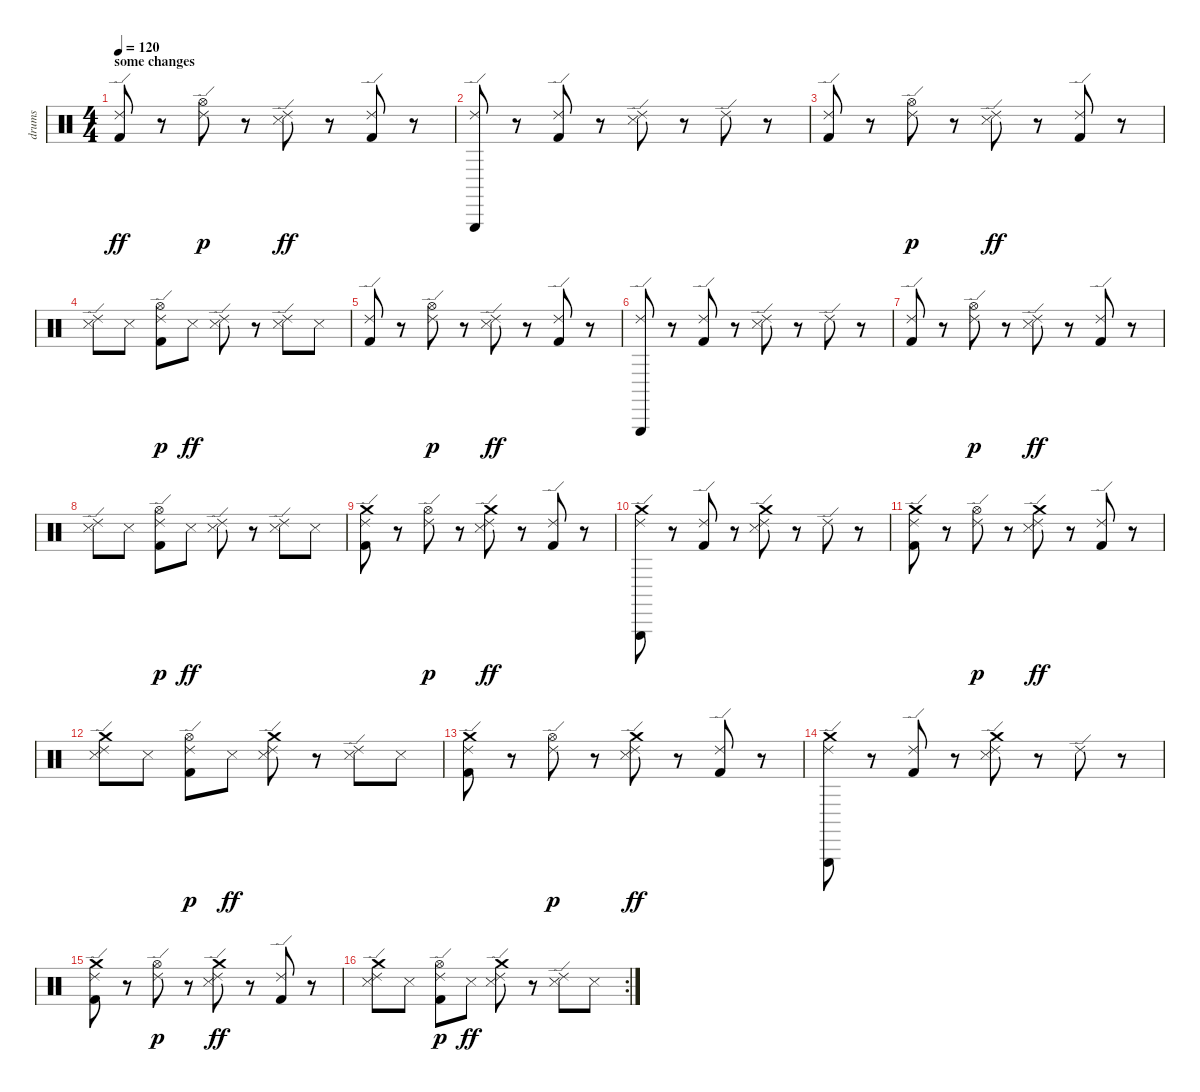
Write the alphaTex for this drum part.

\track ("drums" "drums") {instrument percussion}
\staff {score}
\articulation defaults
\ts (4 4)
\section ("" "some changes")
\tempo 120
\clef neutral
\ks c
("Kick (hit) 2" "Ride (edge) 2").8{dy ff} r.8 ("Ride (edge) 2" "Hi-Hat (open)").8{dy p} r.8 ("Snare (side stick) 3" "Ride (edge) 2").8{dy ff} r.8 ("Kick (hit) 2" "Ride (edge) 2").8 r.8 |
("Triangle (hit)" "Ride (edge) 2").8 r.8 ("Kick (hit) 2" "Ride (edge) 2").8 r.8 ("Snare (side stick) 3" "Ride (edge) 2").8 r.8 "Ride (edge) 2".8 r.8 |
("Kick (hit) 2" "Ride (edge) 2").8 r.8 ("Ride (edge) 2" "Hi-Hat (open)").8{dy p} r.8 ("Snare (side stick) 3" "Ride (edge) 2").8{dy ff} r.8 ("Kick (hit) 2" "Ride (edge) 2").8 r.8 |
("Snare (side stick) 3" "Ride (edge) 2").8 "Snare (side stick) 3".8 ("Kick (hit) 2" "Ride (edge) 2" "Hi-Hat (open)").8{dy p} "Snare (side stick) 3".8{dy ff} ("Snare (side stick) 3" "Ride (edge) 2").8 r.8 ("Snare (side stick) 3" "Ride (edge) 2").8 "Snare (side stick) 3".8 |
("Kick (hit) 2" "Ride (edge) 2").8 r.8 ("Ride (edge) 2" "Hi-Hat (open)").8{dy p} r.8 ("Snare (side stick) 3" "Ride (edge) 2").8{dy ff} r.8 ("Kick (hit) 2" "Ride (edge) 2").8 r.8 |
("Triangle (hit)" "Ride (edge) 2").8 r.8 ("Kick (hit) 2" "Ride (edge) 2").8 r.8 ("Snare (side stick) 3" "Ride (edge) 2").8 r.8 "Ride (edge) 2".8 r.8 |
("Kick (hit) 2" "Ride (edge) 2").8 r.8 ("Ride (edge) 2" "Hi-Hat (open)").8{dy p} r.8 ("Snare (side stick) 3" "Ride (edge) 2").8{dy ff} r.8 ("Kick (hit) 2" "Ride (edge) 2").8 r.8 |
("Snare (side stick) 3" "Ride (edge) 2").8 "Snare (side stick) 3".8 ("Kick (hit) 2" "Ride (edge) 2" "Hi-Hat (open)").8{dy p} "Snare (side stick) 3".8{dy ff} ("Snare (side stick) 3" "Ride (edge) 2").8 r.8 ("Snare (side stick) 3" "Ride (edge) 2").8 "Snare (side stick) 3".8 |
("Kick (hit) 2" "Ride (edge) 2" "Crash medium (hit)").8 r.8 ("Ride (edge) 2" "Hi-Hat (open)").8{dy p} r.8 ("Snare (side stick) 3" "Ride (edge) 2" "Crash medium (hit)").8{dy ff} r.8 ("Kick (hit) 2" "Ride (edge) 2").8 r.8 |
("Triangle (hit)" "Ride (edge) 2" "Crash medium (hit)").8 r.8 ("Kick (hit) 2" "Ride (edge) 2").8 r.8 ("Snare (side stick) 3" "Ride (edge) 2" "Crash medium (hit)").8 r.8 "Ride (edge) 2".8 r.8 |
("Kick (hit) 2" "Ride (edge) 2" "Crash medium (hit)").8 r.8 ("Ride (edge) 2" "Hi-Hat (open)").8{dy p} r.8 ("Snare (side stick) 3" "Ride (edge) 2" "Crash medium (hit)").8{dy ff} r.8 ("Kick (hit) 2" "Ride (edge) 2").8 r.8 |
("Snare (side stick) 3" "Ride (edge) 2" "Crash medium (hit)").8 "Snare (side stick) 3".8 ("Kick (hit) 2" "Ride (edge) 2" "Hi-Hat (open)").8{dy p} "Snare (side stick) 3".8{dy ff} ("Snare (side stick) 3" "Ride (edge) 2" "Crash medium (hit)").8 r.8 ("Snare (side stick) 3" "Ride (edge) 2").8 "Snare (side stick) 3".8 |
("Kick (hit) 2" "Ride (edge) 2" "Crash medium (hit)").8 r.8 ("Ride (edge) 2" "Hi-Hat (open)").8{dy p} r.8 ("Snare (side stick) 3" "Ride (edge) 2" "Crash medium (hit)").8{dy ff} r.8 ("Kick (hit) 2" "Ride (edge) 2").8 r.8 |
("Triangle (hit)" "Ride (edge) 2" "Crash medium (hit)").8 r.8 ("Kick (hit) 2" "Ride (edge) 2").8 r.8 ("Snare (side stick) 3" "Ride (edge) 2" "Crash medium (hit)").8 r.8 "Ride (edge) 2".8 r.8 |
("Kick (hit) 2" "Ride (edge) 2" "Crash medium (hit)").8 r.8 ("Ride (edge) 2" "Hi-Hat (open)").8{dy p} r.8 ("Snare (side stick) 3" "Ride (edge) 2" "Crash medium (hit)").8{dy ff} r.8 ("Kick (hit) 2" "Ride (edge) 2").8 r.8 |
\rc 2
("Snare (side stick) 3" "Ride (edge) 2" "Crash medium (hit)").8 "Snare (side stick) 3".8 ("Kick (hit) 2" "Ride (edge) 2" "Hi-Hat (open)").8{dy p} "Snare (side stick) 3".8{dy ff} ("Snare (side stick) 3" "Ride (edge) 2" "Crash medium (hit)").8 r.8 ("Snare (side stick) 3" "Ride (edge) 2").8 "Snare (side stick) 3".8
